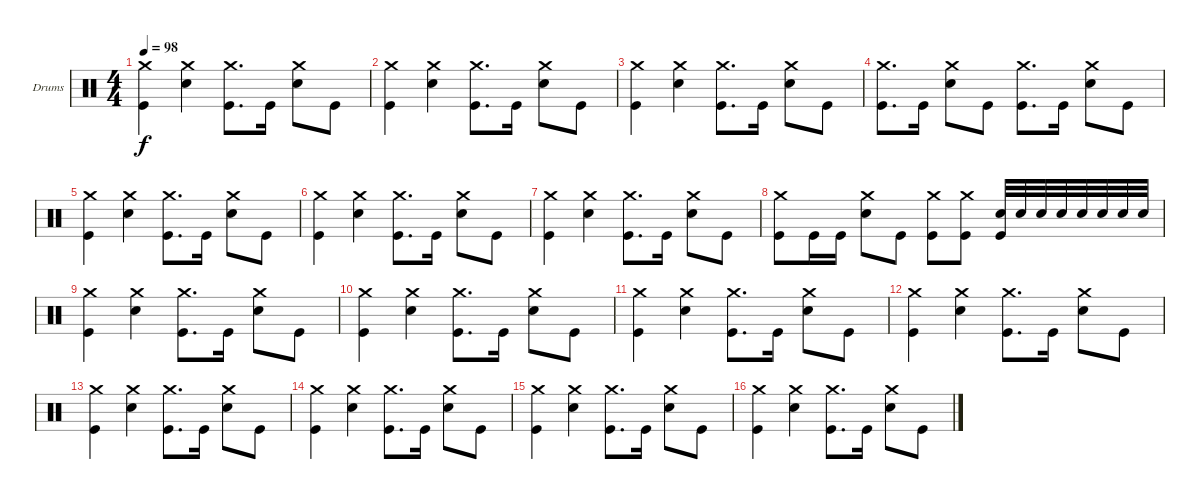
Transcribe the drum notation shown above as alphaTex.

\bracketExtendMode groupsimilarinstruments
\firstSystemTrackNameOrientation horizontal
\otherSystemsTrackNameOrientation horizontal
\track ("Drumkit" "Drums") {instrument percussion}
\staff {score}
\articulation defaults
\ts (4 4)
\tempo 98
\clef neutral
\ks c
("Crash medium (hit)" "Kick (hit)").4{dy f} ("Crash medium (hit)" "Snare (hit) 2").4 ("Crash medium (hit)" "Kick (hit)").8{d} "Kick (hit)".16 ("Crash medium (hit)" "Snare (hit) 2").8 "Kick (hit)".8 |
("Crash medium (hit)" "Kick (hit)").4 ("Crash medium (hit)" "Snare (hit) 2").4 ("Crash medium (hit)" "Kick (hit)").8{d} "Kick (hit)".16 ("Crash medium (hit)" "Snare (hit) 2").8 "Kick (hit)".8 |
("Crash medium (hit)" "Kick (hit)").4 ("Crash medium (hit)" "Snare (hit) 2").4 ("Crash medium (hit)" "Kick (hit)").8{d} "Kick (hit)".16 ("Crash medium (hit)" "Snare (hit) 2").8 "Kick (hit)".8 |
("Crash medium (hit)" "Kick (hit)").8{d} "Kick (hit)".16 ("Crash medium (hit)" "Snare (hit) 2").8 "Kick (hit)".8 ("Crash medium (hit)" "Kick (hit)").8{d} "Kick (hit)".16 ("Crash medium (hit)" "Snare (hit) 2").8 "Kick (hit)".8 |
("Crash medium (hit)" "Kick (hit)").4 ("Crash medium (hit)" "Snare (hit) 2").4 ("Crash medium (hit)" "Kick (hit)").8{d} "Kick (hit)".16 ("Crash medium (hit)" "Snare (hit) 2").8 "Kick (hit)".8 |
("Crash medium (hit)" "Kick (hit)").4 ("Crash medium (hit)" "Snare (hit) 2").4 ("Crash medium (hit)" "Kick (hit)").8{d} "Kick (hit)".16 ("Crash medium (hit)" "Snare (hit) 2").8 "Kick (hit)".8 |
("Crash medium (hit)" "Kick (hit)").4 ("Crash medium (hit)" "Snare (hit) 2").4 ("Crash medium (hit)" "Kick (hit)").8{d} "Kick (hit)".16 ("Crash medium (hit)" "Snare (hit) 2").8 "Kick (hit)".8 |
("Crash medium (hit)" "Kick (hit)").8 "Kick (hit)".16 "Kick (hit)".16 ("Crash medium (hit)" "Snare (hit) 2").8 "Kick (hit)".8 ("Crash medium (hit)" "Kick (hit)").8 ("Crash medium (hit)" "Kick (hit)").8 ("Snare (hit) 2" "Kick (hit)").32 "Snare (hit) 2".32 "Snare (hit) 2".32 "Snare (hit) 2".32 "Snare (hit) 2".32 "Snare (hit) 2".32 "Snare (hit) 2".32 "Snare (hit) 2".32 |
("Crash medium (hit)" "Kick (hit)").4 ("Crash medium (hit)" "Snare (hit) 2").4 ("Crash medium (hit)" "Kick (hit)").8{d} "Kick (hit)".16 ("Crash medium (hit)" "Snare (hit) 2").8 "Kick (hit)".8 |
("Crash medium (hit)" "Kick (hit)").4 ("Crash medium (hit)" "Snare (hit) 2").4 ("Crash medium (hit)" "Kick (hit)").8{d} "Kick (hit)".16 ("Crash medium (hit)" "Snare (hit) 2").8 "Kick (hit)".8 |
("Crash medium (hit)" "Kick (hit)").4 ("Crash medium (hit)" "Snare (hit) 2").4 ("Crash medium (hit)" "Kick (hit)").8{d} "Kick (hit)".16 ("Crash medium (hit)" "Snare (hit) 2").8 "Kick (hit)".8 |
("Crash medium (hit)" "Kick (hit)").4 ("Crash medium (hit)" "Snare (hit) 2").4 ("Crash medium (hit)" "Kick (hit)").8{d} "Kick (hit)".16 ("Crash medium (hit)" "Snare (hit) 2").8 "Kick (hit)".8 |
("Crash medium (hit)" "Kick (hit)").4 ("Crash medium (hit)" "Snare (hit) 2").4 ("Crash medium (hit)" "Kick (hit)").8{d} "Kick (hit)".16 ("Crash medium (hit)" "Snare (hit) 2").8 "Kick (hit)".8 |
("Crash medium (hit)" "Kick (hit)").4 ("Crash medium (hit)" "Snare (hit) 2").4 ("Crash medium (hit)" "Kick (hit)").8{d} "Kick (hit)".16 ("Crash medium (hit)" "Snare (hit) 2").8 "Kick (hit)".8 |
("Crash medium (hit)" "Kick (hit)").4 ("Crash medium (hit)" "Snare (hit) 2").4 ("Crash medium (hit)" "Kick (hit)").8{d} "Kick (hit)".16 ("Crash medium (hit)" "Snare (hit) 2").8 "Kick (hit)".8 |
("Crash medium (hit)" "Kick (hit)").4 ("Crash medium (hit)" "Snare (hit) 2").4 ("Crash medium (hit)" "Kick (hit)").8{d} "Kick (hit)".16 ("Crash medium (hit)" "Snare (hit) 2").8 "Kick (hit)".8
